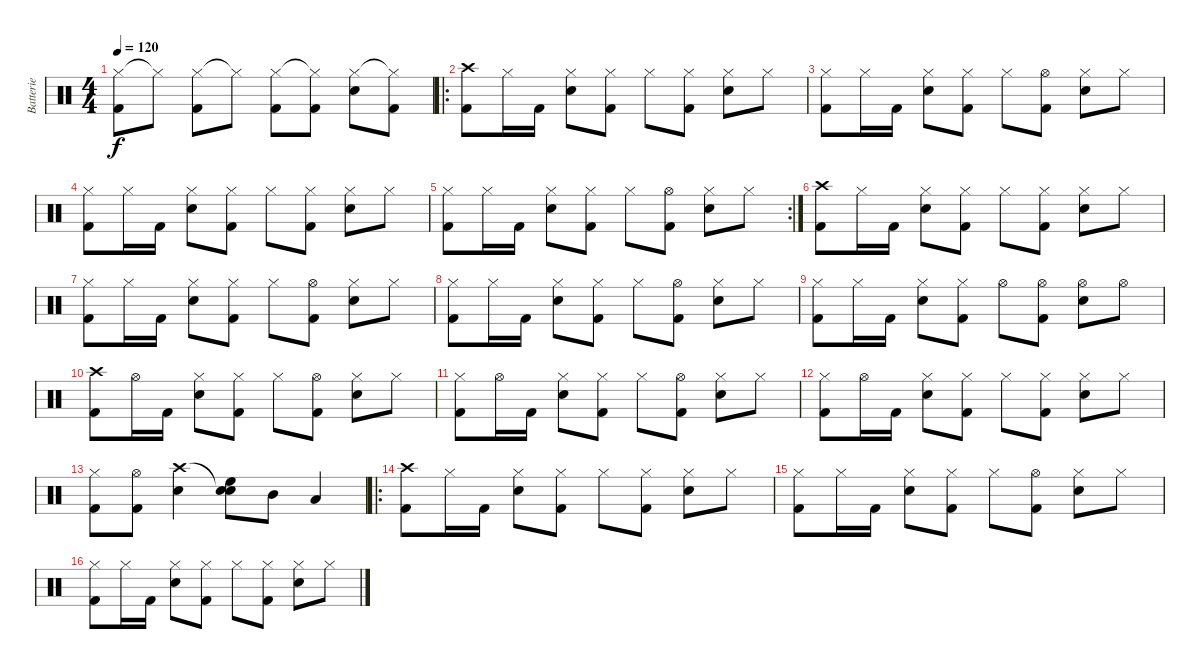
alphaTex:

\track ("Batterie" "Batterie") {instrument percussion}
\staff {score}
\articulation defaults
\ts (4 4)
\tempo 120
\clef neutral
\ks c
("Hi-Hat (closed)" "Kick (hit) 2").8{dy f} "Hi-Hat (closed)"{t}.8 ("Hi-Hat (closed)" "Kick (hit) 2").8 "Hi-Hat (closed)"{t}.8 ("Hi-Hat (closed)" "Kick (hit) 2").8 ("Hi-Hat (closed)"{t} "Kick (hit) 2").8 ("Hi-Hat (closed)" "Snare (hit) 2").8 ("Hi-Hat (closed)"{t} "Kick (hit) 2").8 |
\ro
("Crash high (hit)" "Kick (hit) 2").8 "Hi-Hat (closed)".16 "Kick (hit) 2".16 ("Hi-Hat (closed)" "Snare (hit) 2").8 ("Hi-Hat (closed)" "Kick (hit) 2").8 "Hi-Hat (closed)".8 ("Hi-Hat (closed)" "Kick (hit) 2").8 ("Hi-Hat (closed)" "Snare (hit) 2").8 "Hi-Hat (closed)".8 |
("Hi-Hat (closed)" "Kick (hit) 2").8 "Hi-Hat (closed)".16 "Kick (hit) 2".16 ("Hi-Hat (closed)" "Snare (hit) 2").8 ("Hi-Hat (closed)" "Kick (hit) 2").8 "Hi-Hat (closed)".8 ("Hi-Hat (open)" "Kick (hit) 2").8 ("Hi-Hat (closed)" "Snare (hit) 2").8 "Hi-Hat (closed)".8 |
("Hi-Hat (closed)" "Kick (hit) 2").8 "Hi-Hat (closed)".16 "Kick (hit) 2".16 ("Hi-Hat (closed)" "Snare (hit) 2").8 ("Hi-Hat (closed)" "Kick (hit) 2").8 "Hi-Hat (closed)".8 ("Hi-Hat (closed)" "Kick (hit) 2").8 ("Hi-Hat (closed)" "Snare (hit) 2").8 "Hi-Hat (closed)".8 |
\rc 2
("Hi-Hat (closed)" "Kick (hit) 2").8 "Hi-Hat (closed)".16 "Kick (hit) 2".16 ("Hi-Hat (closed)" "Snare (hit) 2").8 ("Hi-Hat (closed)" "Kick (hit) 2").8 "Hi-Hat (closed)".8 ("Hi-Hat (open)" "Kick (hit) 2").8 ("Hi-Hat (closed)" "Snare (hit) 2").8 "Hi-Hat (closed)".8 |
("Crash high (hit)" "Kick (hit) 2").8 "Hi-Hat (closed)".16 "Kick (hit) 2".16 ("Hi-Hat (closed)" "Snare (hit) 2").8 ("Hi-Hat (closed)" "Kick (hit) 2").8 "Hi-Hat (closed)".8 ("Hi-Hat (closed)" "Kick (hit) 2").8 ("Hi-Hat (closed)" "Snare (hit) 2").8 "Hi-Hat (closed)".8 |
("Hi-Hat (closed)" "Kick (hit) 2").8 "Hi-Hat (closed)".16 "Kick (hit) 2".16 ("Hi-Hat (closed)" "Snare (hit) 2").8 ("Hi-Hat (closed)" "Kick (hit) 2").8 "Hi-Hat (closed)".8 ("Hi-Hat (open)" "Kick (hit) 2").8 ("Hi-Hat (closed)" "Snare (hit) 2").8 "Hi-Hat (closed)".8 |
("Hi-Hat (closed)" "Kick (hit) 2").8 "Hi-Hat (closed)".16 "Kick (hit) 2".16 ("Hi-Hat (closed)" "Snare (hit) 2").8 ("Hi-Hat (closed)" "Kick (hit) 2").8 "Hi-Hat (closed)".8 ("Hi-Hat (open)" "Kick (hit) 2").8 ("Hi-Hat (closed)" "Snare (hit) 2").8 "Hi-Hat (closed)".8 |
("Hi-Hat (closed)" "Kick (hit) 2").8 "Hi-Hat (closed)".16 "Kick (hit) 2".16 ("Hi-Hat (closed)" "Snare (hit) 2").8 ("Hi-Hat (closed)" "Kick (hit) 2").8 "Hi-Hat (open)".8 ("Hi-Hat (open)" "Kick (hit) 2").8 ("Hi-Hat (open)" "Snare (hit) 2").8 "Hi-Hat (open)".8 |
("Crash high (hit)" "Kick (hit) 2").8 "Hi-Hat (open)".16 "Kick (hit) 2".16 ("Hi-Hat (closed)" "Snare (hit) 2").8 ("Hi-Hat (closed)" "Kick (hit) 2").8 "Hi-Hat (closed)".8 ("Hi-Hat (open)" "Kick (hit) 2").8 ("Hi-Hat (closed)" "Snare (hit) 2").8 "Hi-Hat (closed)".8 |
("Hi-Hat (closed)" "Kick (hit) 2").8 "Hi-Hat (open)".16 "Kick (hit) 2".16 ("Hi-Hat (closed)" "Snare (hit) 2").8 ("Hi-Hat (closed)" "Kick (hit) 2").8 "Hi-Hat (closed)".8 ("Hi-Hat (open)" "Kick (hit) 2").8 ("Hi-Hat (closed)" "Snare (hit) 2").8 "Hi-Hat (closed)".8 |
("Hi-Hat (closed)" "Kick (hit) 2").8 "Hi-Hat (open)".16 "Kick (hit) 2".16 ("Hi-Hat (closed)" "Snare (hit) 2").8 ("Hi-Hat (closed)" "Kick (hit) 2").8 "Hi-Hat (closed)".8 ("Hi-Hat (closed)" "Kick (hit) 2").8 ("Hi-Hat (closed)" "Snare (hit) 2").8 "Hi-Hat (closed)".8 |
("Hi-Hat (closed)" "Kick (hit) 2").8 ("Hi-Hat (open)" "Kick (hit) 2").8 ("Crash high (hit)" "Snare (hit) 2").4 ("Snare (hit)"{t} "High Floor Tom (hit)" "Snare (hit)").8 "Mid Tom (hit)".8 "Low Floor Tom (hit)".4 |
\ro
("Crash high (hit)" "Kick (hit) 2").8 "Hi-Hat (closed)".16 "Kick (hit) 2".16 ("Hi-Hat (closed)" "Snare (hit) 2").8 ("Hi-Hat (closed)" "Kick (hit) 2").8 "Hi-Hat (closed)".8 ("Hi-Hat (closed)" "Kick (hit) 2").8 ("Hi-Hat (closed)" "Snare (hit) 2").8 "Hi-Hat (closed)".8 |
("Hi-Hat (closed)" "Kick (hit) 2").8 "Hi-Hat (closed)".16 "Kick (hit) 2".16 ("Hi-Hat (closed)" "Snare (hit) 2").8 ("Hi-Hat (closed)" "Kick (hit) 2").8 "Hi-Hat (closed)".8 ("Hi-Hat (open)" "Kick (hit) 2").8 ("Hi-Hat (closed)" "Snare (hit) 2").8 "Hi-Hat (closed)".8 |
("Hi-Hat (closed)" "Kick (hit) 2").8 "Hi-Hat (closed)".16 "Kick (hit) 2".16 ("Hi-Hat (closed)" "Snare (hit) 2").8 ("Hi-Hat (closed)" "Kick (hit) 2").8 "Hi-Hat (closed)".8 ("Hi-Hat (closed)" "Kick (hit) 2").8 ("Hi-Hat (closed)" "Snare (hit) 2").8 "Hi-Hat (closed)".8
